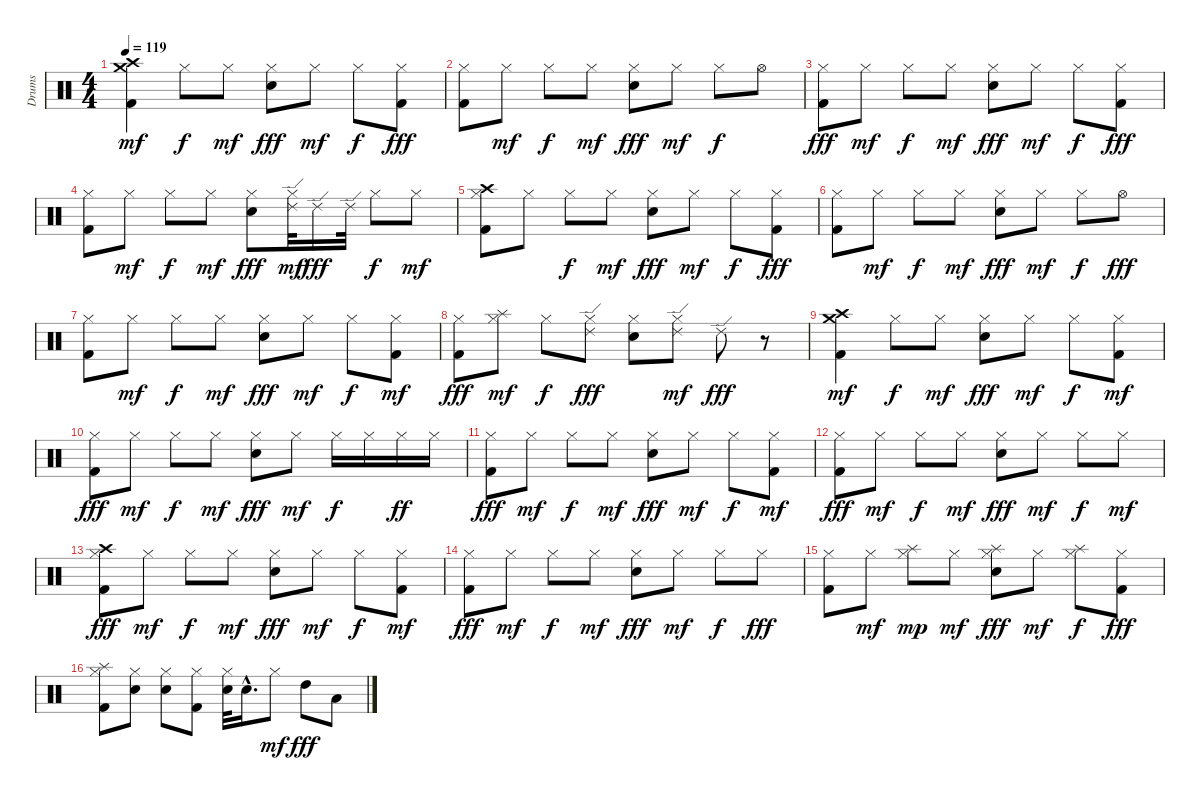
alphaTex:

\track ("Drums" "Drums") {instrument percussion}
\staff {score}
\articulation defaults
\ts (4 4)
\tempo 119
\clef neutral
\ks c
("Crash medium (hit)" "Kick (hit) 2" "Crash high (hit)").4{dy mf} "Hi-Hat (closed)".8{dy f} "Hi-Hat (closed)".8{dy mf} ("Hi-Hat (closed)" "Snare (hit) 2").8{dy fff} "Hi-Hat (closed)".8{dy mf} "Hi-Hat (closed)".8{dy f} ("Hi-Hat (closed)" "Kick (hit) 2").8{dy fff} |
("Hi-Hat (closed)" "Kick (hit) 2").8 "Hi-Hat (closed)".8{dy mf} "Hi-Hat (closed)".8{dy f} "Hi-Hat (closed)".8{dy mf} ("Hi-Hat (closed)" "Snare (hit) 2").8{dy fff} "Hi-Hat (closed)".8{dy mf} "Hi-Hat (closed)".8{dy f} "Hi-Hat (open)".8 |
("Kick (hit) 2" "Hi-Hat (closed)").8{dy fff} "Hi-Hat (closed)".8{dy mf} "Hi-Hat (closed)".8{dy f} "Hi-Hat (closed)".8{dy mf} ("Hi-Hat (closed)" "Snare (hit) 2").8{dy fff} "Hi-Hat (closed)".8{dy mf} "Hi-Hat (closed)".8{dy f} ("Hi-Hat (closed)" "Kick (hit) 2").8{dy fff} |
("Kick (hit) 2" "Hi-Hat (closed)").8 "Hi-Hat (closed)".8{dy mf} "Hi-Hat (closed)".8{dy f} "Hi-Hat (closed)".8{dy mf} ("Snare (hit) 2" "Hi-Hat (closed)").8{dy fff} ("Ride (edge) 2" "Hi-Hat (closed)").32{dy mf} "Ride (edge) 2".16{dy fff} "Ride (edge) 2".32 "Hi-Hat (closed)".8{dy f} "Hi-Hat (closed)".8{dy mf} |
("Kick (hit) 2" "Hi-Hat (closed)" "Crash high (hit)").8 "Hi-Hat (closed)".8 "Hi-Hat (closed)".8{dy f} "Hi-Hat (closed)".8{dy mf} ("Snare (hit) 2" "Hi-Hat (closed)").8{dy fff} "Hi-Hat (closed)".8{dy mf} "Hi-Hat (closed)".8{dy f} ("Hi-Hat (closed)" "Kick (hit) 2").8{dy fff} |
("Hi-Hat (closed)" "Kick (hit) 2").8 "Hi-Hat (closed)".8{dy mf} "Hi-Hat (closed)".8{dy f} "Hi-Hat (closed)".8{dy mf} ("Snare (hit) 2" "Hi-Hat (closed)").8{dy fff} "Hi-Hat (closed)".8{dy mf} "Hi-Hat (closed)".8{dy f} "Hi-Hat (open)".8{dy fff} |
("Hi-Hat (closed)" "Kick (hit) 2").8 "Hi-Hat (closed)".8{dy mf} "Hi-Hat (closed)".8{dy f} "Hi-Hat (closed)".8{dy mf} ("Hi-Hat (closed)" "Snare (hit) 2").8{dy fff} "Hi-Hat (closed)".8{dy mf} "Hi-Hat (closed)".8{dy f} ("Kick (hit) 2" "Hi-Hat (closed)").8{dy mf} |
("Kick (hit) 2" "Hi-Hat (closed)").8{dy fff} ("Hi-Hat (closed)" "Splash (hit)").8{dy mf} "Hi-Hat (closed)".8{dy f} ("Hi-Hat (closed)" "Ride (edge) 2").8{dy fff} ("Hi-Hat (closed)" "Snare (hit) 2").8 ("Ride (edge) 2" "Hi-Hat (closed)").8{dy mf} "Ride (edge) 2".8{dy fff} r.8 |
("Crash medium (hit)" "Kick (hit) 2" "Crash high (hit)").4{dy mf} "Hi-Hat (closed)".8{dy f} "Hi-Hat (closed)".8{dy mf} ("Hi-Hat (closed)" "Snare (hit) 2").8{dy fff} "Hi-Hat (closed)".8{dy mf} "Hi-Hat (closed)".8{dy f} ("Kick (hit) 2" "Hi-Hat (closed)").8{dy mf} |
("Hi-Hat (closed)" "Kick (hit) 2").8{dy fff} "Hi-Hat (closed)".8{dy mf} "Hi-Hat (closed)".8{dy f} "Hi-Hat (closed)".8{dy mf} ("Hi-Hat (closed)" "Snare (hit) 2").8{dy fff} "Hi-Hat (closed)".8{dy mf} "Hi-Hat (closed)".16{dy f} "Hi-Hat (closed)".16 "Hi-Hat (closed)".16{dy ff} "Hi-Hat (closed)".16 |
("Hi-Hat (closed)" "Kick (hit) 2").8{dy fff} "Hi-Hat (closed)".8{dy mf} "Hi-Hat (closed)".8{dy f} "Hi-Hat (closed)".8{dy mf} ("Hi-Hat (closed)" "Snare (hit) 2").8{dy fff} "Hi-Hat (closed)".8{dy mf} "Hi-Hat (closed)".8{dy f} ("Kick (hit) 2" "Hi-Hat (closed)").8{dy mf} |
("Hi-Hat (closed)" "Kick (hit) 2").8{dy fff} "Hi-Hat (closed)".8{dy mf} "Hi-Hat (closed)".8{dy f} "Hi-Hat (closed)".8{dy mf} ("Hi-Hat (closed)" "Snare (hit) 2").8{dy fff} "Hi-Hat (closed)".8{dy mf} "Hi-Hat (closed)".8{dy f} "Hi-Hat (closed)".8{dy mf} |
("Crash high (hit)" "Kick (hit) 2" "Hi-Hat (closed)").8{dy fff} "Hi-Hat (closed)".8{dy mf} "Hi-Hat (closed)".8{dy f} "Hi-Hat (closed)".8{dy mf} ("Hi-Hat (closed)" "Snare (hit) 2").8{dy fff} "Hi-Hat (closed)".8{dy mf} "Hi-Hat (closed)".8{dy f} ("Kick (hit) 2" "Hi-Hat (closed)").8{dy mf} |
("Hi-Hat (closed)" "Kick (hit) 2").8{dy fff} "Hi-Hat (closed)".8{dy mf} "Hi-Hat (closed)".8{dy f} "Hi-Hat (closed)".8{dy mf} ("Hi-Hat (closed)" "Snare (hit) 2").8{dy fff} "Hi-Hat (closed)".8{dy mf} "Hi-Hat (closed)".8{dy f} "Hi-Hat (closed)".8{dy fff} |
("Hi-Hat (closed)" "Kick (hit) 2").8 "Hi-Hat (closed)".8{dy mf} ("Splash (hit)" "Hi-Hat (closed)").8{dy mp} "Hi-Hat (closed)".8{dy mf} ("Hi-Hat (closed)" "Splash (hit)" "Snare (hit) 2").8{dy fff} "Hi-Hat (closed)".8{dy mf} ("Hi-Hat (closed)" "Splash (hit)").8{dy f} ("Hi-Hat (closed)" "Kick (hit) 2").8{dy fff} |
("Splash (hit)" "Hi-Hat (closed)" "Kick (hit) 2").8 ("Hi-Hat (closed)" "Snare (hit) 2").8 ("Hi-Hat (closed)" "Snare (hit) 2").8 ("Hi-Hat (closed)" "Kick (hit) 2").8 ("Snare (hit) 2" "Hi-Hat (closed)").32 "Snare (hit) 2"{hac}.16{d} "Hi-Hat (closed)".8{dy mf} "High Tom (hit)".8{dy fff} "Low Tom (hit)".8
